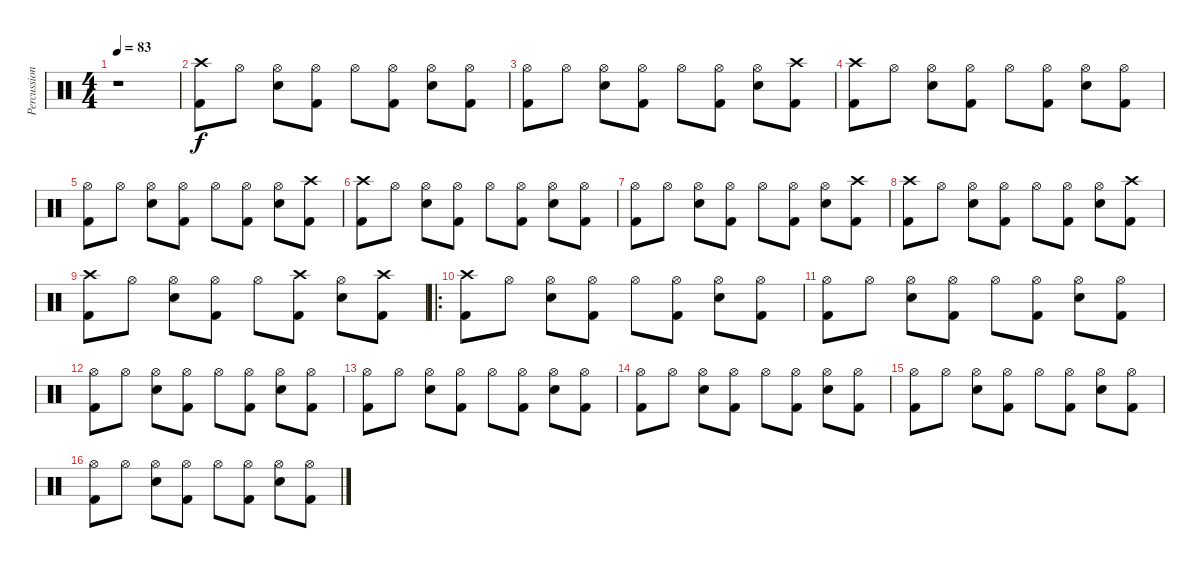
\track ("Percussions" "Percussion") {instrument percussion}
\staff {score}
\articulation defaults
\ts (4 4)
\tempo 83
\clef neutral
\ks c
r.1{dy f} |
("Crash high (hit)" "Kick (hit) 2").8 "Hi-Hat (open)".8 ("Hi-Hat (open)" "Electric Snare (hit)").8 ("Hi-Hat (open)" "Kick (hit) 2").8 "Hi-Hat (open)".8 ("Hi-Hat (open)" "Kick (hit) 2").8 ("Hi-Hat (open)" "Electric Snare (hit)").8 ("Hi-Hat (open)" "Kick (hit) 2").8 |
("Hi-Hat (open)" "Kick (hit) 2").8 "Hi-Hat (open)".8 ("Hi-Hat (open)" "Electric Snare (hit)").8 ("Hi-Hat (open)" "Kick (hit) 2").8 "Hi-Hat (open)".8 ("Hi-Hat (open)" "Kick (hit) 2").8 ("Hi-Hat (open)" "Electric Snare (hit)").8 ("Crash high (hit)" "Kick (hit) 2").8 |
("Crash high (hit)" "Kick (hit) 2").8 "Hi-Hat (open)".8 ("Hi-Hat (open)" "Electric Snare (hit)").8 ("Hi-Hat (open)" "Kick (hit) 2").8 "Hi-Hat (open)".8 ("Hi-Hat (open)" "Kick (hit) 2").8 ("Hi-Hat (open)" "Electric Snare (hit)").8 ("Hi-Hat (open)" "Kick (hit) 2").8 |
("Hi-Hat (open)" "Kick (hit) 2").8 "Hi-Hat (open)".8 ("Hi-Hat (open)" "Electric Snare (hit)").8 ("Hi-Hat (open)" "Kick (hit) 2").8 "Hi-Hat (open)".8 ("Hi-Hat (open)" "Kick (hit) 2").8 ("Hi-Hat (open)" "Electric Snare (hit)").8 ("Crash high (hit)" "Kick (hit) 2").8 |
("Crash high (hit)" "Kick (hit) 2").8 "Hi-Hat (open)".8 ("Hi-Hat (open)" "Electric Snare (hit)").8 ("Hi-Hat (open)" "Kick (hit) 2").8 "Hi-Hat (open)".8 ("Hi-Hat (open)" "Kick (hit) 2").8 ("Hi-Hat (open)" "Electric Snare (hit)").8 ("Hi-Hat (open)" "Kick (hit) 2").8 |
("Hi-Hat (open)" "Kick (hit) 2").8 "Hi-Hat (open)".8 ("Hi-Hat (open)" "Electric Snare (hit)").8 ("Hi-Hat (open)" "Kick (hit) 2").8 "Hi-Hat (open)".8 ("Hi-Hat (open)" "Kick (hit) 2").8 ("Hi-Hat (open)" "Electric Snare (hit)").8 ("Crash high (hit)" "Kick (hit) 2").8 |
("Crash high (hit)" "Kick (hit) 2").8 "Hi-Hat (open)".8 ("Hi-Hat (open)" "Electric Snare (hit)").8 ("Hi-Hat (open)" "Kick (hit) 2").8 "Hi-Hat (open)".8 ("Hi-Hat (open)" "Kick (hit) 2").8 ("Hi-Hat (open)" "Electric Snare (hit)").8 ("Crash high (hit)" "Kick (hit) 2").8 |
("Crash high (hit)" "Kick (hit) 2").8 "Hi-Hat (open)".8 ("Hi-Hat (open)" "Electric Snare (hit)").8 ("Hi-Hat (open)" "Kick (hit) 2").8 "Hi-Hat (open)".8 ("Crash high (hit)" "Kick (hit) 2").8 ("Hi-Hat (open)" "Electric Snare (hit)").8 ("Crash high (hit)" "Kick (hit) 2").8 |
\ro
("Crash high (hit)" "Kick (hit) 2").8 "Hi-Hat (open)".8 ("Hi-Hat (open)" "Electric Snare (hit)").8 ("Hi-Hat (open)" "Kick (hit) 2").8 "Hi-Hat (open)".8 ("Hi-Hat (open)" "Kick (hit) 2").8 ("Hi-Hat (open)" "Electric Snare (hit)").8 ("Hi-Hat (open)" "Kick (hit) 2").8 |
("Hi-Hat (open)" "Kick (hit) 2").8 "Hi-Hat (open)".8 ("Hi-Hat (open)" "Electric Snare (hit)").8 ("Hi-Hat (open)" "Kick (hit) 2").8 "Hi-Hat (open)".8 ("Hi-Hat (open)" "Kick (hit) 2").8 ("Hi-Hat (open)" "Electric Snare (hit)").8 ("Hi-Hat (open)" "Kick (hit) 2").8 |
("Hi-Hat (open)" "Kick (hit) 2").8 "Hi-Hat (open)".8 ("Hi-Hat (open)" "Electric Snare (hit)").8 ("Hi-Hat (open)" "Kick (hit) 2").8 "Hi-Hat (open)".8 ("Hi-Hat (open)" "Kick (hit) 2").8 ("Hi-Hat (open)" "Electric Snare (hit)").8 ("Hi-Hat (open)" "Kick (hit) 2").8 |
("Hi-Hat (open)" "Kick (hit) 2").8 "Hi-Hat (open)".8 ("Hi-Hat (open)" "Electric Snare (hit)").8 ("Hi-Hat (open)" "Kick (hit) 2").8 "Hi-Hat (open)".8 ("Hi-Hat (open)" "Kick (hit) 2").8 ("Hi-Hat (open)" "Electric Snare (hit)").8 ("Hi-Hat (open)" "Kick (hit) 2").8 |
("Hi-Hat (open)" "Kick (hit) 2").8 "Hi-Hat (open)".8 ("Hi-Hat (open)" "Electric Snare (hit)").8 ("Hi-Hat (open)" "Kick (hit) 2").8 "Hi-Hat (open)".8 ("Hi-Hat (open)" "Kick (hit) 2").8 ("Hi-Hat (open)" "Electric Snare (hit)").8 ("Hi-Hat (open)" "Kick (hit) 2").8 |
("Hi-Hat (open)" "Kick (hit) 2").8 "Hi-Hat (open)".8 ("Hi-Hat (open)" "Electric Snare (hit)").8 ("Hi-Hat (open)" "Kick (hit) 2").8 "Hi-Hat (open)".8 ("Hi-Hat (open)" "Kick (hit) 2").8 ("Hi-Hat (open)" "Electric Snare (hit)").8 ("Hi-Hat (open)" "Kick (hit) 2").8 |
("Hi-Hat (open)" "Kick (hit) 2").8 "Hi-Hat (open)".8 ("Hi-Hat (open)" "Electric Snare (hit)").8 ("Hi-Hat (open)" "Kick (hit) 2").8 "Hi-Hat (open)".8 ("Hi-Hat (open)" "Kick (hit) 2").8 ("Hi-Hat (open)" "Electric Snare (hit)").8 ("Hi-Hat (open)" "Kick (hit) 2").8
